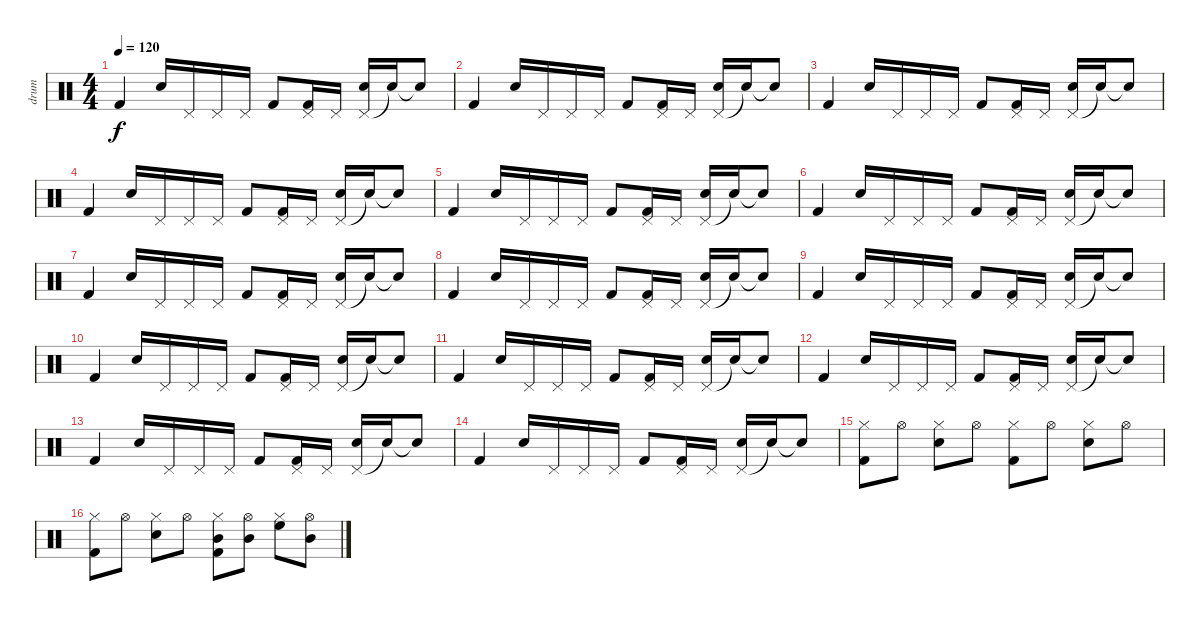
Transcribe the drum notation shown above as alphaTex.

\track ("drum" "drum") {instrument percussion}
\staff {score}
\articulation defaults
\ts (4 4)
\tempo 120
\clef neutral
\ks c "Kick (hit) 2".4{dy f} "Electric Snare (hit)".16 "Pedal Hi-Hat (hit)".16 "Pedal Hi-Hat (hit)".16 "Pedal Hi-Hat (hit)".16 "Kick (hit) 2".8
("Pedal Hi-Hat (hit)" "Kick (hit) 2").16 "Pedal Hi-Hat (hit)".16 ("Pedal Hi-Hat (hit)" "Electric Snare (hit)").16 "Snare (hit)"{t}.16 "Snare (hit)"{t}.8 |
"Kick (hit) 2".4 "Electric Snare (hit)".16 "Pedal Hi-Hat (hit)".16 "Pedal Hi-Hat (hit)".16 "Pedal Hi-Hat (hit)".16 "Kick (hit) 2".8 ("Pedal Hi-Hat (hit)" "Kick (hit) 2").16 "Pedal Hi-Hat (hit)".16 ("Pedal Hi-Hat (hit)" "Electric Snare (hit)").16 "Snare (hit)"{t}.16 "Snare (hit)"{t}.8 |
"Kick (hit) 2".4 "Electric Snare (hit)".16 "Pedal Hi-Hat (hit)".16 "Pedal Hi-Hat (hit)".16 "Pedal Hi-Hat (hit)".16 "Kick (hit) 2".8 ("Pedal Hi-Hat (hit)" "Kick (hit) 2").16 "Pedal Hi-Hat (hit)".16 ("Pedal Hi-Hat (hit)" "Electric Snare (hit)").16 "Snare (hit)"{t}.16 "Snare (hit)"{t}.8 |
"Kick (hit) 2".4 "Electric Snare (hit)".16 "Pedal Hi-Hat (hit)".16 "Pedal Hi-Hat (hit)".16 "Pedal Hi-Hat (hit)".16 "Kick (hit) 2".8 ("Pedal Hi-Hat (hit)" "Kick (hit) 2").16 "Pedal Hi-Hat (hit)".16 ("Pedal Hi-Hat (hit)" "Electric Snare (hit)").16 "Snare (hit)"{t}.16 "Snare (hit)"{t}.8 |
"Kick (hit) 2".4 "Electric Snare (hit)".16 "Pedal Hi-Hat (hit)".16 "Pedal Hi-Hat (hit)".16 "Pedal Hi-Hat (hit)".16 "Kick (hit) 2".8 ("Pedal Hi-Hat (hit)" "Kick (hit) 2").16 "Pedal Hi-Hat (hit)".16 ("Pedal Hi-Hat (hit)" "Electric Snare (hit)").16 "Snare (hit)"{t}.16 "Snare (hit)"{t}.8 |
"Kick (hit) 2".4 "Electric Snare (hit)".16 "Pedal Hi-Hat (hit)".16 "Pedal Hi-Hat (hit)".16 "Pedal Hi-Hat (hit)".16 "Kick (hit) 2".8 ("Pedal Hi-Hat (hit)" "Kick (hit) 2").16 "Pedal Hi-Hat (hit)".16 ("Pedal Hi-Hat (hit)" "Electric Snare (hit)").16 "Snare (hit)"{t}.16 "Snare (hit)"{t}.8 |
"Kick (hit) 2".4 "Electric Snare (hit)".16 "Pedal Hi-Hat (hit)".16 "Pedal Hi-Hat (hit)".16 "Pedal Hi-Hat (hit)".16 "Kick (hit) 2".8 ("Pedal Hi-Hat (hit)" "Kick (hit) 2").16 "Pedal Hi-Hat (hit)".16 ("Pedal Hi-Hat (hit)" "Electric Snare (hit)").16 "Snare (hit)"{t}.16 "Snare (hit)"{t}.8 |
"Kick (hit) 2".4 "Electric Snare (hit)".16 "Pedal Hi-Hat (hit)".16 "Pedal Hi-Hat (hit)".16 "Pedal Hi-Hat (hit)".16 "Kick (hit) 2".8 ("Pedal Hi-Hat (hit)" "Kick (hit) 2").16 "Pedal Hi-Hat (hit)".16 ("Pedal Hi-Hat (hit)" "Electric Snare (hit)").16 "Snare (hit)"{t}.16 "Snare (hit)"{t}.8 |
"Kick (hit) 2".4 "Electric Snare (hit)".16 "Pedal Hi-Hat (hit)".16 "Pedal Hi-Hat (hit)".16 "Pedal Hi-Hat (hit)".16 "Kick (hit) 2".8 ("Pedal Hi-Hat (hit)" "Kick (hit) 2").16 "Pedal Hi-Hat (hit)".16 ("Pedal Hi-Hat (hit)" "Electric Snare (hit)").16 "Snare (hit)"{t}.16 "Snare (hit)"{t}.8 |
"Kick (hit) 2".4 "Electric Snare (hit)".16 "Pedal Hi-Hat (hit)".16 "Pedal Hi-Hat (hit)".16 "Pedal Hi-Hat (hit)".16 "Kick (hit) 2".8 ("Pedal Hi-Hat (hit)" "Kick (hit) 2").16 "Pedal Hi-Hat (hit)".16 ("Pedal Hi-Hat (hit)" "Electric Snare (hit)").16 "Snare (hit)"{t}.16 "Snare (hit)"{t}.8 |
"Kick (hit) 2".4 "Electric Snare (hit)".16 "Pedal Hi-Hat (hit)".16 "Pedal Hi-Hat (hit)".16 "Pedal Hi-Hat (hit)".16 "Kick (hit) 2".8 ("Pedal Hi-Hat (hit)" "Kick (hit) 2").16 "Pedal Hi-Hat (hit)".16 ("Pedal Hi-Hat (hit)" "Electric Snare (hit)").16 "Snare (hit)"{t}.16 "Snare (hit)"{t}.8 |
"Kick (hit) 2".4 "Electric Snare (hit)".16 "Pedal Hi-Hat (hit)".16 "Pedal Hi-Hat (hit)".16 "Pedal Hi-Hat (hit)".16 "Kick (hit) 2".8 ("Pedal Hi-Hat (hit)" "Kick (hit) 2").16 "Pedal Hi-Hat (hit)".16 ("Pedal Hi-Hat (hit)" "Electric Snare (hit)").16 "Snare (hit)"{t}.16 "Snare (hit)"{t}.8 |
"Kick (hit) 2".4 "Electric Snare (hit)".16 "Pedal Hi-Hat (hit)".16 "Pedal Hi-Hat (hit)".16 "Pedal Hi-Hat (hit)".16 "Kick (hit) 2".8 ("Pedal Hi-Hat (hit)" "Kick (hit) 2").16 "Pedal Hi-Hat (hit)".16 ("Pedal Hi-Hat (hit)" "Electric Snare (hit)").16 "Snare (hit)"{t}.16 "Snare (hit)"{t}.8 |
"Kick (hit) 2".4 "Electric Snare (hit)".16 "Pedal Hi-Hat (hit)".16 "Pedal Hi-Hat (hit)".16 "Pedal Hi-Hat (hit)".16 "Kick (hit) 2".8 ("Pedal Hi-Hat (hit)" "Kick (hit) 2").16 "Pedal Hi-Hat (hit)".16 ("Pedal Hi-Hat (hit)" "Electric Snare (hit)").16 "Snare (hit)"{t}.16 "Snare (hit)"{t}.8 |
("Hi-Hat (closed)" "Kick (hit) 2").8 "Hi-Hat (open)".8 ("Hi-Hat (closed)" "Electric Snare (hit)").8 "Hi-Hat (open)".8 ("Hi-Hat (closed)" "Kick (hit) 2").8 "Hi-Hat (open)".8 ("Hi-Hat (closed)" "Electric Snare (hit)").8 "Hi-Hat (open)".8 |
("Hi-Hat (closed)" "Kick (hit) 2").8 "Hi-Hat (open)".8 ("Hi-Hat (closed)" "Electric Snare (hit)").8 "Hi-Hat (open)".8 ("Hi-Hat (closed)" "Mid Tom (hit)" "Kick (hit) 2").8 ("Hi-Hat (open)" "Mid Tom (hit)").8 ("Hi-Hat (closed)" "High Floor Tom (hit)").8 ("Hi-Hat (open)" "Mid Tom (hit)").8
